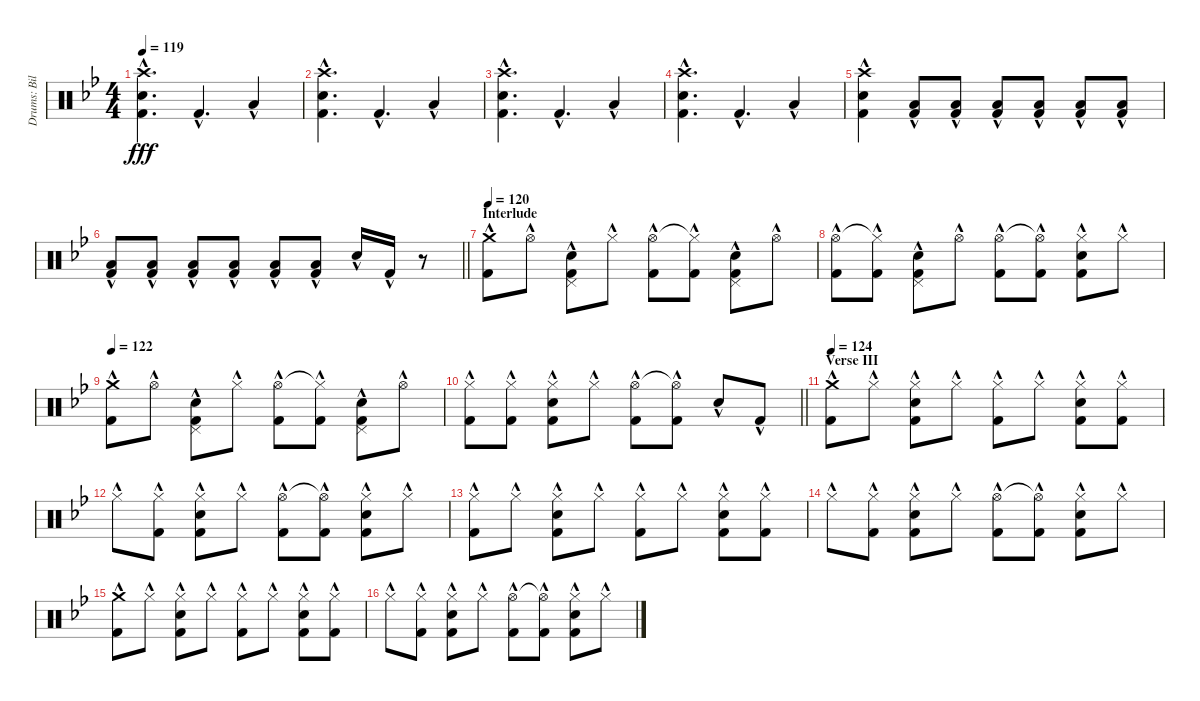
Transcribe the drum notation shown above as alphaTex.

\track ("Drums: Bill" "Drums: Bil") {instrument percussion}
\staff {score}
\articulation defaults
\ts (4 4)
\tempo 119
\clef neutral
\ks bb
("Crash high (hit)"{hac} "Snare (hit) 2"{hac} "Kick (hit) 2"{hac}).4{d dy fff} "Kick (hit) 2"{hac}.4{d} "Low Tom (hit)"{hac}.4 |
("Crash high (hit)"{hac} "Snare (hit) 2"{hac} "Kick (hit) 2"{hac}).4{d} "Kick (hit) 2"{hac}.4{d} "Low Tom (hit)"{hac}.4 |
("Crash high (hit)"{hac} "Snare (hit) 2"{hac} "Kick (hit) 2"{hac}).4{d} "Kick (hit) 2"{hac}.4{d} "Low Tom (hit)"{hac}.4 |
("Crash high (hit)"{hac} "Snare (hit) 2"{hac} "Kick (hit) 2"{hac}).4{d} "Kick (hit) 2"{hac}.4{d} "Low Tom (hit)"{hac}.4 |
("Crash high (hit)"{hac} "Snare (hit) 2"{hac} "Kick (hit) 2"{hac}).4 ("Low Tom (hit)"{hac} "Kick (hit) 2"{hac}).8 ("Low Tom (hit)"{hac} "Kick (hit) 2"{hac}).8 ("Low Tom (hit)"{hac} "Kick (hit) 2"{hac}).8 ("Low Tom (hit)"{hac} "Kick (hit) 2"{hac}).8 ("Low Tom (hit)"{hac} "Kick (hit) 2"{hac}).8 ("Low Tom (hit)"{hac} "Kick (hit) 2"{hac}).8 |
\barLineRight lightlight
("Low Tom (hit)"{hac} "Kick (hit) 2"{hac}).8 ("Low Tom (hit)"{hac} "Kick (hit) 2"{hac}).8 ("Low Tom (hit)"{hac} "Kick (hit) 2"{hac}).8 ("Low Tom (hit)"{hac} "Kick (hit) 2"{hac}).8 ("Low Tom (hit)"{hac} "Kick (hit) 2"{hac}).8 ("Low Tom (hit)"{hac} "Kick (hit) 2"{hac}).8 "Snare (hit) 2"{hac}.16 "Kick (hit) 2"{hac}.16 r.8 |
\section ("" "Interlude")
\tempo 120
("Crash medium (hit)"{hac} "Kick (hit) 2"{hac}).8 "Hi-Hat (open)"{hac}.8 ("Pedal Hi-Hat (hit)"{hac} "Snare (hit) 2"{hac} "Kick (hit) 2"{hac}).8 "Hi-Hat (closed)"{hac}.8 ("Hi-Hat (open)"{hac} "Kick (hit) 2"{hac}).8 ("Hi-Hat (closed)"{t} "Kick (hit) 2"{hac}).8 ("Pedal Hi-Hat (hit)"{hac} "Snare (hit) 2"{hac} "Kick (hit) 2"{hac}).8 "Hi-Hat (open)"{hac}.8 |
("Hi-Hat (open)"{hac} "Kick (hit) 2"{hac}).8 ("Hi-Hat (closed)"{t} "Kick (hit) 2"{hac}).8 ("Pedal Hi-Hat (hit)"{hac} "Snare (hit) 2"{hac} "Kick (hit) 2"{hac}).8 "Hi-Hat (open)"{hac}.8 ("Hi-Hat (open)"{hac} "Kick (hit) 2"{hac}).8 ("Hi-Hat (open)"{t} "Kick (hit) 2"{hac}).8 ("Hi-Hat (closed)"{hac} "Snare (hit) 2"{hac} "Kick (hit) 2"{hac}).8 "Hi-Hat (closed)"{hac}.8 |
\tempo 122
("Crash medium (hit)"{hac} "Kick (hit) 2"{hac}).8 "Hi-Hat (open)"{hac}.8 ("Pedal Hi-Hat (hit)"{hac} "Snare (hit) 2"{hac} "Kick (hit) 2"{hac}).8 "Hi-Hat (closed)"{hac}.8 ("Hi-Hat (open)"{hac} "Kick (hit) 2"{hac}).8 ("Hi-Hat (closed)"{t} "Kick (hit) 2"{hac}).8 ("Pedal Hi-Hat (hit)"{hac} "Snare (hit) 2"{hac} "Kick (hit) 2"{hac}).8 "Hi-Hat (open)"{hac}.8 |
\barLineRight lightlight
("Hi-Hat (closed)"{hac} "Kick (hit) 2"{hac}).8 ("Hi-Hat (closed)"{hac} "Kick (hit) 2"{hac}).8 ("Hi-Hat (closed)"{hac} "Snare (hit) 2"{hac} "Kick (hit) 2"{hac}).8 "Hi-Hat (closed)"{hac}.8 ("Hi-Hat (open)"{hac} "Kick (hit) 2"{hac}).8 ("Hi-Hat (open)"{t} "Kick (hit) 2"{hac}).8 "Snare (hit) 2"{hac}.8 "Kick (hit) 2"{hac}.8 |
\section ("" "Verse III")
\tempo 124
("Crash medium (hit)"{hac} "Kick (hit) 2"{hac}).8 "Hi-Hat (closed)"{hac}.8 ("Hi-Hat (closed)"{hac} "Snare (hit) 2"{hac} "Kick (hit) 2"{hac}).8 "Hi-Hat (closed)"{hac}.8 ("Hi-Hat (closed)"{hac} "Kick (hit) 2"{hac}).8 "Hi-Hat (closed)"{hac}.8 ("Hi-Hat (closed)"{hac} "Snare (hit) 2"{hac} "Kick (hit) 2"{hac}).8 ("Hi-Hat (closed)"{hac} "Kick (hit) 2"{hac}).8 |
"Hi-Hat (closed)"{hac}.8 ("Hi-Hat (closed)"{hac} "Kick (hit) 2"{hac}).8 ("Hi-Hat (closed)"{hac} "Snare (hit) 2"{hac} "Kick (hit) 2"{hac}).8 "Hi-Hat (closed)"{hac}.8 ("Hi-Hat (open)"{hac} "Kick (hit) 2"{hac}).8 ("Hi-Hat (open)"{t} "Kick (hit) 2"{hac}).8 ("Hi-Hat (closed)"{hac} "Snare (hit) 2"{hac} "Kick (hit) 2"{hac}).8 "Hi-Hat (closed)"{hac}.8 |
("Hi-Hat (closed)"{hac} "Kick (hit) 2"{hac}).8 "Hi-Hat (closed)"{hac}.8 ("Hi-Hat (closed)"{hac} "Snare (hit) 2"{hac} "Kick (hit) 2"{hac}).8 "Hi-Hat (closed)"{hac}.8 ("Hi-Hat (closed)"{hac} "Kick (hit) 2"{hac}).8 "Hi-Hat (closed)"{hac}.8 ("Hi-Hat (closed)"{hac} "Snare (hit) 2"{hac} "Kick (hit) 2"{hac}).8 ("Hi-Hat (closed)"{hac} "Kick (hit) 2"{hac}).8 |
"Hi-Hat (closed)"{hac}.8 ("Hi-Hat (closed)"{hac} "Kick (hit) 2"{hac}).8 ("Hi-Hat (closed)"{hac} "Snare (hit) 2"{hac} "Kick (hit) 2"{hac}).8 "Hi-Hat (closed)"{hac}.8 ("Hi-Hat (open)"{hac} "Kick (hit) 2"{hac}).8 ("Hi-Hat (open)"{t} "Kick (hit) 2"{hac}).8 ("Hi-Hat (closed)"{hac} "Snare (hit) 2"{hac} "Kick (hit) 2"{hac}).8 "Hi-Hat (closed)"{hac}.8 |
("Crash medium (hit)"{hac} "Kick (hit) 2"{hac}).8 "Hi-Hat (closed)"{hac}.8 ("Hi-Hat (closed)"{hac} "Snare (hit) 2"{hac} "Kick (hit) 2"{hac}).8 "Hi-Hat (closed)"{hac}.8 ("Hi-Hat (closed)"{hac} "Kick (hit) 2"{hac}).8 "Hi-Hat (closed)"{hac}.8 ("Hi-Hat (closed)"{hac} "Snare (hit) 2"{hac} "Kick (hit) 2"{hac}).8 ("Hi-Hat (closed)"{hac} "Kick (hit) 2"{hac}).8 |
"Hi-Hat (closed)"{hac}.8 ("Hi-Hat (closed)"{hac} "Kick (hit) 2"{hac}).8 ("Hi-Hat (closed)"{hac} "Snare (hit) 2"{hac} "Kick (hit) 2"{hac}).8 "Hi-Hat (closed)"{hac}.8 ("Hi-Hat (open)"{hac} "Kick (hit) 2"{hac}).8 ("Hi-Hat (open)"{t} "Kick (hit) 2"{hac}).8 ("Hi-Hat (closed)"{hac} "Snare (hit) 2"{hac} "Kick (hit) 2"{hac}).8 "Hi-Hat (closed)"{hac}.8
